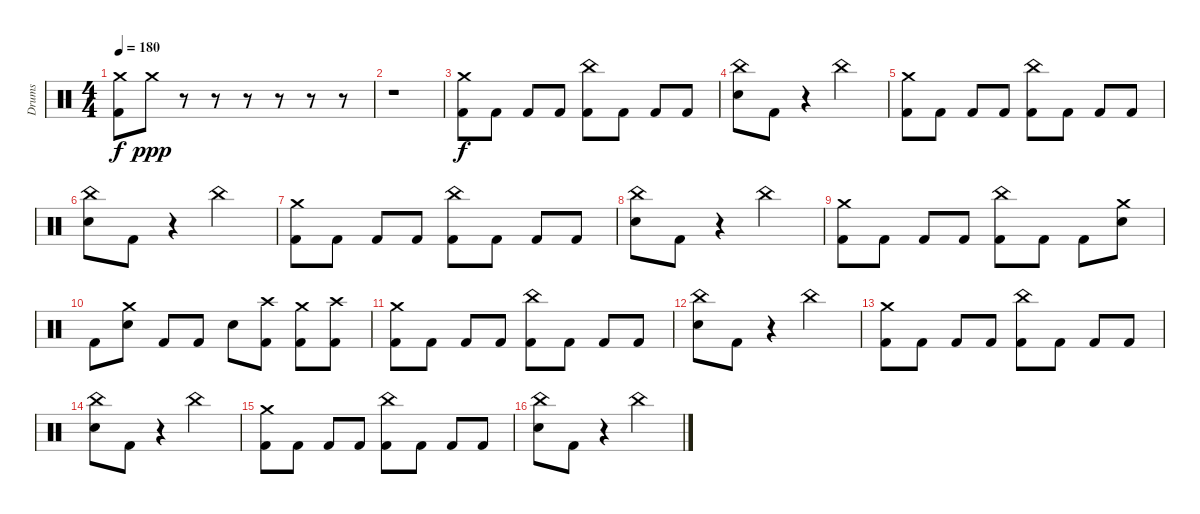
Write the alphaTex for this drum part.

\track ("Drums" "Drums") {instrument percussion}
\staff
\articulation defaults
\ts (4 4)
\tempo 180
\clef neutral
\ks c
("Crash medium (hit)" "Kick (hit) 2").8{dy f} "Crash medium (hit)".8{dy ppp} r.8 r.8 r.8 r.8 r.8 r.8 |
r.1 |
("Crash medium (hit)" "Kick (hit) 2").8{dy f} "Kick (hit) 2".8 "Kick (hit) 2".8 "Kick (hit) 2".8 ("China (hit)" "Kick (hit) 2").8 "Kick (hit) 2".8 "Kick (hit) 2".8 "Kick (hit) 2".8 |
("China (hit)" "Electric Snare (hit)").8 "Kick (hit) 2".8 r.4 "China (hit)".2 |
("Crash medium (hit)" "Kick (hit) 2").8 "Kick (hit) 2".8 "Kick (hit) 2".8 "Kick (hit) 2".8 ("China (hit)" "Kick (hit) 2").8 "Kick (hit) 2".8 "Kick (hit) 2".8 "Kick (hit) 2".8 |
("China (hit)" "Electric Snare (hit)").8 "Kick (hit) 2".8 r.4 "China (hit)".2 |
("Crash medium (hit)" "Kick (hit) 2").8 "Kick (hit) 2".8 "Kick (hit) 2".8 "Kick (hit) 2".8 ("China (hit)" "Kick (hit) 2").8 "Kick (hit) 2".8 "Kick (hit) 2".8 "Kick (hit) 2".8 |
("China (hit)" "Electric Snare (hit)").8 "Kick (hit) 2".8 r.4 "China (hit)".2 |
("Crash medium (hit)" "Kick (hit) 2").8 "Kick (hit) 2".8 "Kick (hit) 2".8 "Kick (hit) 2".8 ("China (hit)" "Kick (hit) 2").8 "Kick (hit) 2".8 "Kick (hit) 2".8 ("Crash medium (hit)" "Electric Snare (hit)").8 |
"Kick (hit) 2".8 ("Crash medium (hit)" "Electric Snare (hit)").8 "Kick (hit) 2".8 "Kick (hit) 2".8 "Electric Snare (hit)".8 ("Crash high (hit)" "Kick (hit) 2").8 ("Crash medium (hit)" "Kick (hit) 2").8 ("Crash high (hit)" "Kick (hit) 2").8 |
("Crash medium (hit)" "Kick (hit) 2").8 "Kick (hit) 2".8 "Kick (hit) 2".8 "Kick (hit) 2".8 ("China (hit)" "Kick (hit) 2").8 "Kick (hit) 2".8 "Kick (hit) 2".8 "Kick (hit) 2".8 |
("China (hit)" "Electric Snare (hit)").8 "Kick (hit) 2".8 r.4 "China (hit)".2 |
("Crash medium (hit)" "Kick (hit) 2").8 "Kick (hit) 2".8 "Kick (hit) 2".8 "Kick (hit) 2".8 ("China (hit)" "Kick (hit) 2").8 "Kick (hit) 2".8 "Kick (hit) 2".8 "Kick (hit) 2".8 |
("China (hit)" "Electric Snare (hit)").8 "Kick (hit) 2".8 r.4 "China (hit)".2 |
("Crash medium (hit)" "Kick (hit) 2").8 "Kick (hit) 2".8 "Kick (hit) 2".8 "Kick (hit) 2".8 ("China (hit)" "Kick (hit) 2").8 "Kick (hit) 2".8 "Kick (hit) 2".8 "Kick (hit) 2".8 |
("China (hit)" "Electric Snare (hit)").8 "Kick (hit) 2".8 r.4 "China (hit)".2
